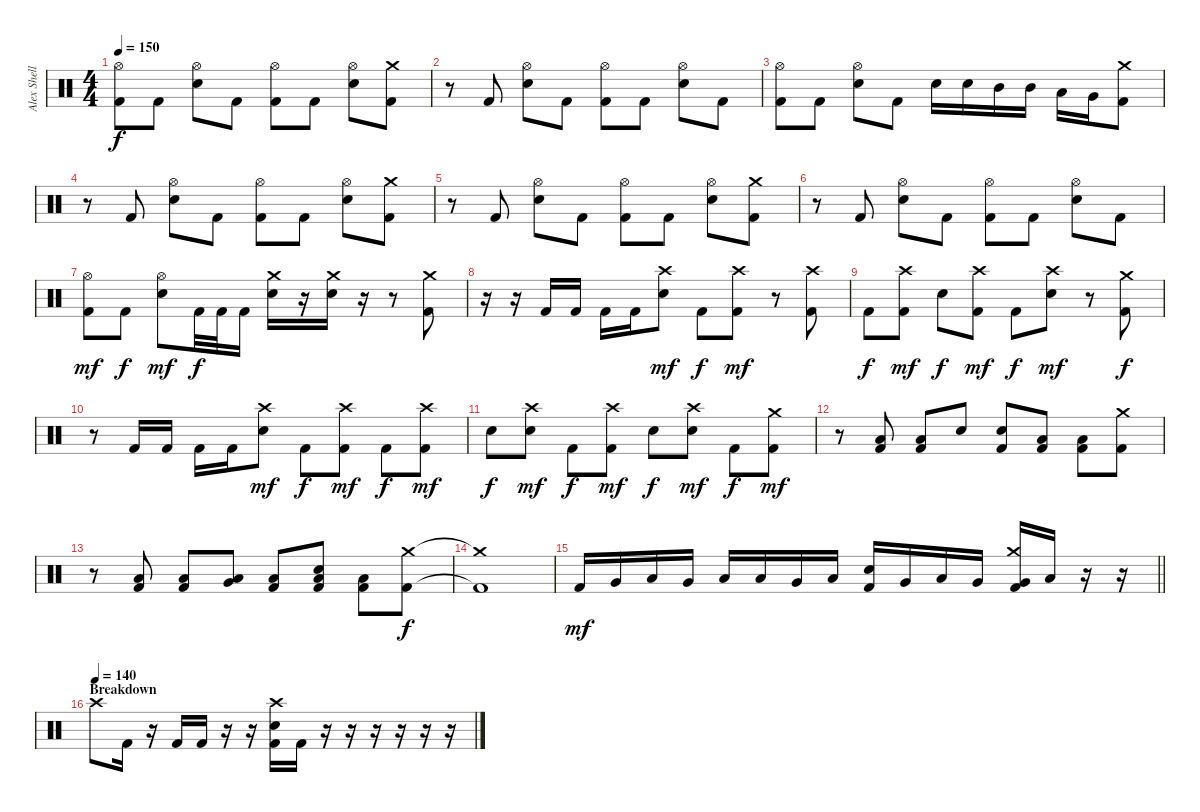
\track ("Alex Shellnutt" "Alex Shell") {instrument percussion}
\staff {score}
\articulation defaults
\ts (4 4)
\tempo 150
\clef neutral
\ks c
("Hi-Hat (open)" "Kick (hit) 2").8{dy f} "Kick (hit) 2".8 ("Hi-Hat (open)" "Snare (hit) 2").8 "Kick (hit) 2".8 ("Hi-Hat (open)" "Kick (hit) 2").8 "Kick (hit) 2".8 ("Hi-Hat (open)" "Snare (hit) 2").8 ("Crash medium (hit)" "Kick (hit) 2").8 |
r.8 "Kick (hit) 2".8 ("Hi-Hat (open)" "Snare (hit) 2").8 "Kick (hit) 2".8 ("Hi-Hat (open)" "Kick (hit) 2").8 "Kick (hit) 2".8 ("Hi-Hat (open)" "Snare (hit) 2").8 "Kick (hit) 2".8 |
("Hi-Hat (open)" "Kick (hit) 2").8 "Kick (hit) 2".8 ("Hi-Hat (open)" "Snare (hit) 2").8 "Kick (hit) 2".8 "Snare (hit) 2".16 "Snare (hit) 2".16 "Mid Tom (hit)".16 "Mid Tom (hit)".16 "Low Tom (hit)".16 "Very Low Tom (hit)".16 ("Crash medium (hit)" "Kick (hit) 2").8 |
r.8 "Kick (hit) 2".8 ("Hi-Hat (open)" "Snare (hit) 2").8 "Kick (hit) 2".8 ("Hi-Hat (open)" "Kick (hit) 2").8 "Kick (hit) 2".8 ("Hi-Hat (open)" "Snare (hit) 2").8 ("Crash medium (hit)" "Kick (hit) 2").8 |
r.8 "Kick (hit) 2".8 ("Hi-Hat (open)" "Snare (hit) 2").8 "Kick (hit) 2".8 ("Hi-Hat (open)" "Kick (hit) 2").8 "Kick (hit) 2".8 ("Hi-Hat (open)" "Snare (hit) 2").8 ("Crash medium (hit)" "Kick (hit) 2").8 |
r.8 "Kick (hit) 2".8 ("Hi-Hat (open)" "Snare (hit) 2").8 "Kick (hit) 2".8 ("Hi-Hat (open)" "Kick (hit) 2").8 "Kick (hit) 2".8 ("Hi-Hat (open)" "Snare (hit) 2").8 "Kick (hit) 2".8 |
("Hi-Hat (open)" "Kick (hit) 2").8{dy mf} "Kick (hit) 2".8{dy f} ("Hi-Hat (open)" "Snare (hit) 2").8{dy mf} "Kick (hit) 2".32{dy f} "Kick (hit) 2".32 "Kick (hit) 2".16 ("Crash medium (hit)" "Snare (hit) 2").16 r.16 ("Crash medium (hit)" "Snare (hit) 2").16 r.16 r.8 ("Crash medium (hit)" "Kick (hit) 2").8 |
r.16 r.16 "Kick (hit) 2".16 "Kick (hit) 2".16 "Kick (hit) 2".16 "Kick (hit) 2".16 ("Crash high (hit)" "Snare (hit) 2").8{dy mf} "Kick (hit) 2".8{dy f} ("Crash high (hit)" "Kick (hit) 2").8{dy mf} r.8 ("Crash high (hit)" "Kick (hit) 2").8 |
"Kick (hit) 2".8{dy f} ("Crash high (hit)" "Kick (hit) 2").8{dy mf} "Snare (hit) 2".8{dy f} ("Crash high (hit)" "Kick (hit) 2").8{dy mf} "Kick (hit) 2".8{dy f} ("Crash high (hit)" "Snare (hit) 2").8{dy mf} r.8 ("Crash medium (hit)" "Kick (hit) 2").8{dy f} |
r.8 "Kick (hit) 2".16 "Kick (hit) 2".16 "Kick (hit) 2".16 "Kick (hit) 2".16 ("Crash high (hit)" "Snare (hit) 2").8{dy mf} "Kick (hit) 2".8{dy f} ("Crash high (hit)" "Kick (hit) 2").8{dy mf} "Kick (hit) 2".8{dy f} ("Crash high (hit)" "Kick (hit) 2").8{dy mf} |
"Snare (hit) 2".8{dy f} ("Crash high (hit)" "Snare (hit) 2").8{dy mf} "Kick (hit) 2".8{dy f} ("Crash high (hit)" "Kick (hit) 2").8{dy mf} "Snare (hit) 2".8{dy f} ("Crash high (hit)" "Snare (hit) 2").8{dy mf} "Kick (hit) 2".8{dy f} ("Crash medium (hit)" "Kick (hit) 2").8{dy mf} |
r.8 ("Low Floor Tom (hit)" "Kick (hit) 2").8 ("Low Floor Tom (hit)" "Kick (hit) 2").8 "Snare (hit) 2".8 ("Snare (hit) 2" "Kick (hit) 2").8 ("Low Floor Tom (hit)" "Kick (hit) 2").8 ("Low Floor Tom (hit)" "Kick (hit) 2").8 ("Crash medium (hit)" "Kick (hit) 2").8 |
r.8 ("Low Floor Tom (hit)" "Kick (hit) 2").8 ("Low Floor Tom (hit)" "Kick (hit) 2").8 ("Very Low Tom (hit)" "Low Floor Tom (hit)").8 ("Low Floor Tom (hit)" "Kick (hit) 2").8 ("Snare (hit) 2" "Low Floor Tom (hit)" "Kick (hit) 2").8 ("Low Floor Tom (hit)" "Kick (hit) 2").8 ("Crash medium (hit)" "Kick (hit) 2").8{dy f} |
("Crash medium (hit)"{t} "Kick (hit) 2"{t}).1 |
\barLineRight lightlight "Kick (hit) 2".16{dy mf} "Very Low Tom (hit)".16 "Low Tom (hit)".16 "Very Low Tom (hit)".16 "Low Floor Tom (hit)".16 "Low Tom (hit)".16 "Very Low Tom (hit)".16 "Low Floor Tom (hit)".16
("Snare (hit) 2" "Kick (hit) 2").16 "Very Low Tom (hit)".16 "Low Tom (hit)".16 "Very Low Tom (hit)".16 ("Crash medium (hit)" "Very Low Tom (hit)" "Kick (hit) 2").16 "Low Floor Tom (hit)".16 r.16 r.16 |
\section ("" "Breakdown")
\tempo (140)
"Crash high (hit)".8 "Kick (hit) 2".16 r.16 "Kick (hit) 2".16 "Kick (hit) 2".16 r.16 r.16 ("Crash high (hit)" "Snare (hit) 2" "Kick (hit) 2").16 "Kick (hit) 2".16 r.16 r.16 r.16 r.16 r.16 r.16
